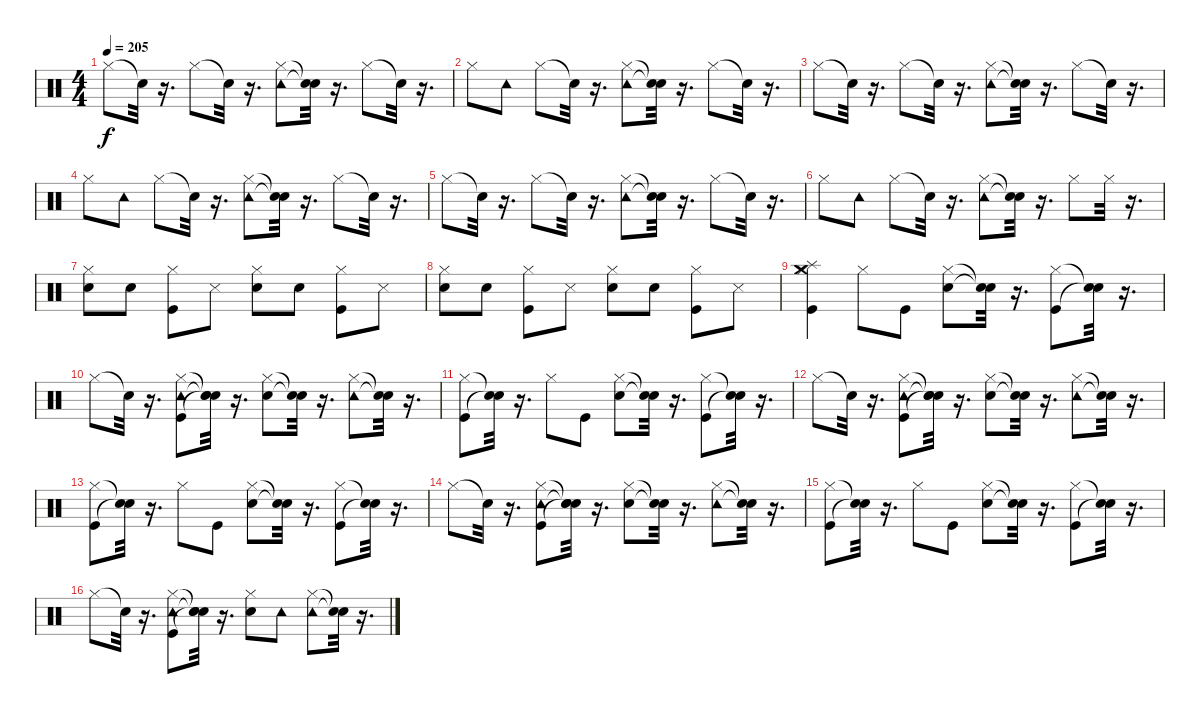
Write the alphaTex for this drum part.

\track "" {instrument percussion}
\staff {score}
\articulation defaults
\ts (4 4)
\tempo 205
\clef neutral
\ks c "Hi-Hat (closed)".8{dy f} "Snare (hit)"{t}.32
r.16{d} "Hi-Hat (closed)".8 "Snare (hit)"{t}.32 r.16{d} ("Tambourine (hit)" "Hi-Hat (closed)").8 ("Snare (hit)"{t} "Snare (hit)"{t}).32 r.16{d} "Hi-Hat (closed)".8 "Snare (hit)"{t}.32 r.16{d} |
"Hi-Hat (closed)".8 "Tambourine (hit)".8 "Hi-Hat (closed)".8 "Snare (hit)"{t}.32 r.16{d} ("Hi-Hat (closed)" "Tambourine (hit)").8 ("Snare (hit)"{t} "Snare (hit)"{t}).32 r.16{d} "Hi-Hat (closed)".8 "Snare (hit)"{t}.32 r.16{d} |
"Hi-Hat (closed)".8 "Snare (hit)"{t}.32 r.16{d} "Hi-Hat (closed)".8 "Snare (hit)"{t}.32 r.16{d} ("Tambourine (hit)" "Hi-Hat (closed)").8 ("Snare (hit)"{t} "Snare (hit)"{t}).32 r.16{d} "Hi-Hat (closed)".8 "Snare (hit)"{t}.32 r.16{d} |
"Hi-Hat (closed)".8 "Tambourine (hit)".8 "Hi-Hat (closed)".8 "Snare (hit)"{t}.32 r.16{d} ("Hi-Hat (closed)" "Tambourine (hit)").8 ("Snare (hit)"{t} "Snare (hit)"{t}).32 r.16{d} "Hi-Hat (closed)".8 "Snare (hit)"{t}.32 r.16{d} |
"Hi-Hat (closed)".8 "Snare (hit)"{t}.32 r.16{d} "Hi-Hat (closed)".8 "Snare (hit)"{t}.32 r.16{d} ("Tambourine (hit)" "Hi-Hat (closed)").8 ("Snare (hit)"{t} "Snare (hit)"{t}).32 r.16{d} "Hi-Hat (closed)".8 "Snare (hit)"{t}.32 r.16{d} |
"Hi-Hat (closed)".8 "Tambourine (hit)".8 "Hi-Hat (closed)".8 "Snare (hit)"{t}.32 r.16{d} ("Hi-Hat (closed)" "Tambourine (hit)").8 ("Snare (hit)"{t} "Snare (hit)"{t}).32 r.16{d} "Hi-Hat (closed)".8 "Hi-Hat (closed)".32 r.16{d} |
("Snare (hit) 2" "Hi-Hat (closed)").8 "Electric Snare (hit)".8 ("Kick (hit)" "Hi-Hat (closed)").8 "Metronome (hit)".8 ("Snare (hit) 2" "Hi-Hat (closed)").8 "Electric Snare (hit)".8 ("Kick (hit)" "Hi-Hat (closed)").8 "Metronome (hit)".8 |
("Snare (hit) 2" "Hi-Hat (closed)").8 "Electric Snare (hit)".8 ("Kick (hit)" "Hi-Hat (closed)").8 "Metronome (hit)".8 ("Snare (hit) 2" "Hi-Hat (closed)").8 "Electric Snare (hit)".8 ("Hi-Hat (closed)" "Kick (hit)").8 "Metronome (hit)".8 |
("Kick (hit)" "Hi-Hat (closed)" "Splash (hit)" "Crash medium (hit)").4 "Hi-Hat (closed)".8 "Kick (hit)".8 ("Hi-Hat (closed)" "Electric Snare (hit)").8 ("Snare (hit)"{t} "Snare (hit)"{t}).32 r.16{d} ("Hi-Hat (closed)" "Kick (hit)").8 ("Snare (hit)"{t} "Snare (hit)"{t}).32 r.16{d} |
"Hi-Hat (closed)".8 "Snare (hit)"{t}.32 r.16{d} ("Hi-Hat (closed)" "Kick (hit)" "Tambourine (hit)").8 ("Snare (hit)"{t} "Snare (hit)"{t} "Snare (hit)"{t}).32 r.16{d} ("Hi-Hat (closed)" "Electric Snare (hit)").8 ("Snare (hit)"{t} "Snare (hit)"{t}).32 r.16{d} ("Hi-Hat (closed)" "Tambourine (hit)").8 ("Snare (hit)"{t} "Snare (hit)"{t}).32 r.16{d} |
("Kick (hit)" "Hi-Hat (closed)").8 ("Snare (hit)"{t} "Snare (hit)"{t}).32 r.16{d} "Hi-Hat (closed)".8 "Kick (hit)".8 ("Hi-Hat (closed)" "Electric Snare (hit)").8 ("Snare (hit)"{t} "Snare (hit)"{t}).32 r.16{d} ("Hi-Hat (closed)" "Kick (hit)").8 ("Snare (hit)"{t} "Snare (hit)"{t}).32 r.16{d} |
"Hi-Hat (closed)".8 "Snare (hit)"{t}.32 r.16{d} ("Hi-Hat (closed)" "Kick (hit)" "Tambourine (hit)").8 ("Snare (hit)"{t} "Snare (hit)"{t} "Snare (hit)"{t}).32 r.16{d} ("Hi-Hat (closed)" "Electric Snare (hit)").8 ("Snare (hit)"{t} "Snare (hit)"{t}).32 r.16{d} ("Hi-Hat (closed)" "Tambourine (hit)").8 ("Snare (hit)"{t} "Snare (hit)"{t}).32 r.16{d} |
("Kick (hit)" "Hi-Hat (closed)").8 ("Snare (hit)"{t} "Snare (hit)"{t}).32 r.16{d} "Hi-Hat (closed)".8 "Kick (hit)".8 ("Hi-Hat (closed)" "Electric Snare (hit)").8 ("Snare (hit)"{t} "Snare (hit)"{t}).32 r.16{d} ("Hi-Hat (closed)" "Kick (hit)").8 ("Snare (hit)"{t} "Snare (hit)"{t}).32 r.16{d} |
"Hi-Hat (closed)".8 "Snare (hit)"{t}.32 r.16{d} ("Hi-Hat (closed)" "Kick (hit)" "Tambourine (hit)").8 ("Snare (hit)"{t} "Snare (hit)"{t} "Snare (hit)"{t}).32 r.16{d} ("Hi-Hat (closed)" "Electric Snare (hit)").8 ("Snare (hit)"{t} "Snare (hit)"{t}).32 r.16{d} ("Hi-Hat (closed)" "Tambourine (hit)").8 ("Snare (hit)"{t} "Snare (hit)"{t}).32 r.16{d} |
("Kick (hit)" "Hi-Hat (closed)").8 ("Snare (hit)"{t} "Snare (hit)"{t}).32 r.16{d} "Hi-Hat (closed)".8 "Kick (hit)".8 ("Hi-Hat (closed)" "Electric Snare (hit)").8 ("Snare (hit)"{t} "Snare (hit)"{t}).32 r.16{d} ("Hi-Hat (closed)" "Kick (hit)").8 ("Snare (hit)"{t} "Snare (hit)"{t}).32 r.16{d} |
"Hi-Hat (closed)".8 "Snare (hit)"{t}.32 r.16{d} ("Hi-Hat (closed)" "Kick (hit)" "Tambourine (hit)").8 ("Snare (hit)"{t} "Snare (hit)"{t} "Snare (hit)"{t}).32 r.16{d} ("Hi-Hat (closed)" "Electric Snare (hit)").8 "Tambourine (hit)".8 ("Hi-Hat (closed)" "Tambourine (hit)").8 ("Snare (hit)"{t} "Snare (hit)"{t}).32 r.16{d}
